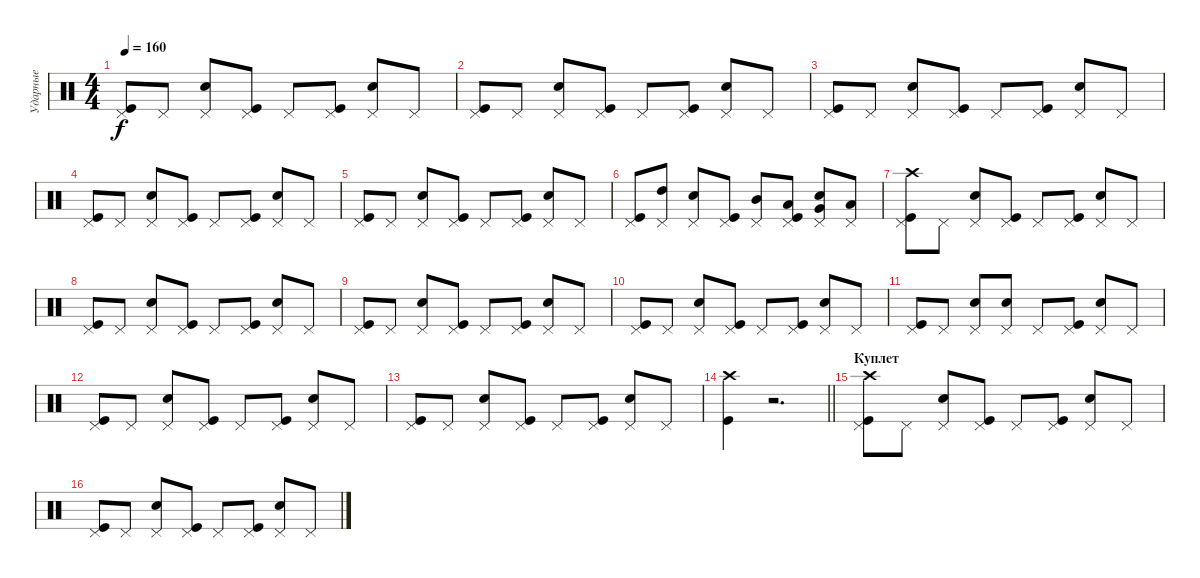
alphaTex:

\track ("Ударные" "Ударные") {instrument percussion}
\staff {score}
\articulation defaults
\ts (4 4)
\tempo 160
\clef neutral
\ks c
("Pedal Hi-Hat (hit)" "Kick (hit)").8{dy f} "Pedal Hi-Hat (hit)".8 ("Pedal Hi-Hat (hit)" "Snare (hit) 2").8 ("Pedal Hi-Hat (hit)" "Kick (hit)").8 "Pedal Hi-Hat (hit)".8 ("Pedal Hi-Hat (hit)" "Kick (hit)").8 ("Pedal Hi-Hat (hit)" "Snare (hit) 2").8 "Pedal Hi-Hat (hit)".8 |
("Pedal Hi-Hat (hit)" "Kick (hit)").8 "Pedal Hi-Hat (hit)".8 ("Pedal Hi-Hat (hit)" "Snare (hit) 2").8 ("Pedal Hi-Hat (hit)" "Kick (hit)").8 "Pedal Hi-Hat (hit)".8 ("Pedal Hi-Hat (hit)" "Kick (hit)").8 ("Pedal Hi-Hat (hit)" "Snare (hit) 2").8 "Pedal Hi-Hat (hit)".8 |
("Pedal Hi-Hat (hit)" "Kick (hit)").8 "Pedal Hi-Hat (hit)".8 ("Pedal Hi-Hat (hit)" "Snare (hit) 2").8 ("Pedal Hi-Hat (hit)" "Kick (hit)").8 "Pedal Hi-Hat (hit)".8 ("Pedal Hi-Hat (hit)" "Kick (hit)").8 ("Pedal Hi-Hat (hit)" "Snare (hit) 2").8 "Pedal Hi-Hat (hit)".8 |
("Pedal Hi-Hat (hit)" "Kick (hit)").8 "Pedal Hi-Hat (hit)".8 ("Pedal Hi-Hat (hit)" "Snare (hit) 2").8 ("Pedal Hi-Hat (hit)" "Kick (hit)").8 "Pedal Hi-Hat (hit)".8 ("Pedal Hi-Hat (hit)" "Kick (hit)").8 ("Pedal Hi-Hat (hit)" "Snare (hit) 2").8 "Pedal Hi-Hat (hit)".8 |
("Pedal Hi-Hat (hit)" "Kick (hit)").8 "Pedal Hi-Hat (hit)".8 ("Pedal Hi-Hat (hit)" "Snare (hit) 2").8 ("Pedal Hi-Hat (hit)" "Kick (hit)").8 "Pedal Hi-Hat (hit)".8 ("Pedal Hi-Hat (hit)" "Kick (hit)").8 ("Pedal Hi-Hat (hit)" "Snare (hit) 2").8 "Pedal Hi-Hat (hit)".8 |
("Pedal Hi-Hat (hit)" "Kick (hit)").8 ("Pedal Hi-Hat (hit)" "High Tom (hit)").8 ("Pedal Hi-Hat (hit)" "Snare (hit) 2").8 ("Pedal Hi-Hat (hit)" "Kick (hit)").8 ("Pedal Hi-Hat (hit)" "Mid Tom (hit)").8 ("Pedal Hi-Hat (hit)" "Low Tom (hit)" "Kick (hit)").8 ("Pedal Hi-Hat (hit)" "Very Low Tom (hit)" "Snare (hit) 2").8 ("Pedal Hi-Hat (hit)" "Low Floor Tom (hit)").8 |
("Pedal Hi-Hat (hit)" "Crash high (hit)" "Kick (hit)").8 "Pedal Hi-Hat (hit)".8 ("Pedal Hi-Hat (hit)" "Snare (hit) 2").8 ("Pedal Hi-Hat (hit)" "Kick (hit)").8 "Pedal Hi-Hat (hit)".8 ("Pedal Hi-Hat (hit)" "Kick (hit)").8 ("Pedal Hi-Hat (hit)" "Snare (hit) 2").8 "Pedal Hi-Hat (hit)".8 |
("Pedal Hi-Hat (hit)" "Kick (hit)").8 "Pedal Hi-Hat (hit)".8 ("Pedal Hi-Hat (hit)" "Snare (hit) 2").8 ("Pedal Hi-Hat (hit)" "Kick (hit)").8 "Pedal Hi-Hat (hit)".8 ("Pedal Hi-Hat (hit)" "Kick (hit)").8 ("Pedal Hi-Hat (hit)" "Snare (hit) 2").8 "Pedal Hi-Hat (hit)".8 |
("Pedal Hi-Hat (hit)" "Kick (hit)").8 "Pedal Hi-Hat (hit)".8 ("Pedal Hi-Hat (hit)" "Snare (hit) 2").8 ("Pedal Hi-Hat (hit)" "Kick (hit)").8 "Pedal Hi-Hat (hit)".8 ("Pedal Hi-Hat (hit)" "Kick (hit)").8 ("Pedal Hi-Hat (hit)" "Snare (hit) 2").8 "Pedal Hi-Hat (hit)".8 |
("Pedal Hi-Hat (hit)" "Kick (hit)").8 "Pedal Hi-Hat (hit)".8 ("Pedal Hi-Hat (hit)" "Snare (hit) 2").8 ("Pedal Hi-Hat (hit)" "Kick (hit)").8 "Pedal Hi-Hat (hit)".8 ("Pedal Hi-Hat (hit)" "Kick (hit)").8 ("Pedal Hi-Hat (hit)" "Snare (hit) 2").8 "Pedal Hi-Hat (hit)".8 |
("Pedal Hi-Hat (hit)" "Kick (hit)").8 "Pedal Hi-Hat (hit)".8 ("Pedal Hi-Hat (hit)" "Snare (hit) 2").8 ("Pedal Hi-Hat (hit)" "Snare (hit) 2").8 "Pedal Hi-Hat (hit)".8 ("Pedal Hi-Hat (hit)" "Kick (hit)").8 ("Pedal Hi-Hat (hit)" "Snare (hit) 2").8 "Pedal Hi-Hat (hit)".8 |
("Pedal Hi-Hat (hit)" "Kick (hit)").8 "Pedal Hi-Hat (hit)".8 ("Pedal Hi-Hat (hit)" "Snare (hit) 2").8 ("Pedal Hi-Hat (hit)" "Kick (hit)").8 "Pedal Hi-Hat (hit)".8 ("Pedal Hi-Hat (hit)" "Kick (hit)").8 ("Pedal Hi-Hat (hit)" "Snare (hit) 2").8 "Pedal Hi-Hat (hit)".8 |
("Pedal Hi-Hat (hit)" "Kick (hit)").8 "Pedal Hi-Hat (hit)".8 ("Pedal Hi-Hat (hit)" "Snare (hit) 2").8 ("Pedal Hi-Hat (hit)" "Kick (hit)").8 "Pedal Hi-Hat (hit)".8 ("Pedal Hi-Hat (hit)" "Kick (hit)").8 ("Pedal Hi-Hat (hit)" "Snare (hit) 2").8 "Pedal Hi-Hat (hit)".8 |
\barLineRight lightlight
("Crash high (hit)" "Kick (hit)").4 r.2{d} |
\section ("" "Куплет")
("Pedal Hi-Hat (hit)" "Crash high (hit)" "Kick (hit)").8 "Pedal Hi-Hat (hit)".8 ("Pedal Hi-Hat (hit)" "Snare (hit) 2").8 ("Pedal Hi-Hat (hit)" "Kick (hit)").8 "Pedal Hi-Hat (hit)".8 ("Pedal Hi-Hat (hit)" "Kick (hit)").8 ("Pedal Hi-Hat (hit)" "Snare (hit) 2").8 "Pedal Hi-Hat (hit)".8 |
("Pedal Hi-Hat (hit)" "Kick (hit)").8 "Pedal Hi-Hat (hit)".8 ("Pedal Hi-Hat (hit)" "Snare (hit) 2").8 ("Pedal Hi-Hat (hit)" "Kick (hit)").8 "Pedal Hi-Hat (hit)".8 ("Pedal Hi-Hat (hit)" "Kick (hit)").8 ("Pedal Hi-Hat (hit)" "Snare (hit) 2").8 "Pedal Hi-Hat (hit)".8
